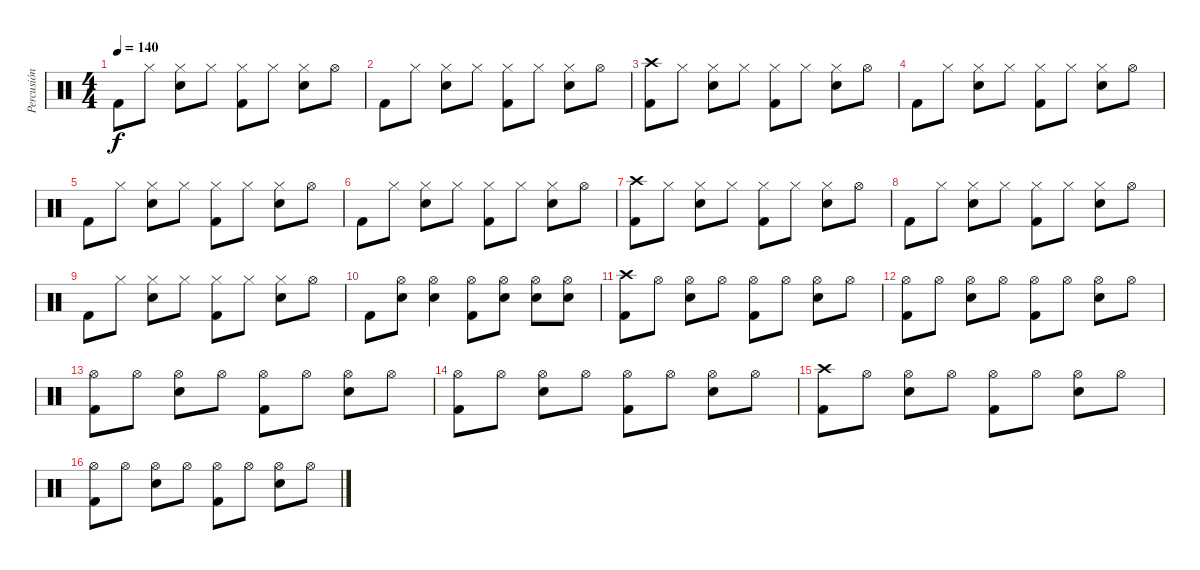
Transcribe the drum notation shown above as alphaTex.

\track ("Percusión" "Percusión") {instrument percussion}
\staff {score}
\articulation defaults
\ts (4 4)
\tempo 140
\clef neutral
\ks c "Kick (hit) 2".8{dy f} "Hi-Hat (closed)".8
("Hi-Hat (closed)" "Electric Snare (hit)").8 "Hi-Hat (closed)".8 ("Hi-Hat (closed)" "Kick (hit) 2").8 "Hi-Hat (closed)".8 ("Hi-Hat (closed)" "Electric Snare (hit)").8 "Hi-Hat (open)".8 |
"Kick (hit) 2".8 "Hi-Hat (closed)".8 ("Hi-Hat (closed)" "Electric Snare (hit)").8 "Hi-Hat (closed)".8 ("Hi-Hat (closed)" "Kick (hit) 2").8 "Hi-Hat (closed)".8 ("Hi-Hat (closed)" "Electric Snare (hit)").8 "Hi-Hat (open)".8 |
("Crash high (hit)" "Kick (hit) 2").8 "Hi-Hat (closed)".8 ("Hi-Hat (closed)" "Electric Snare (hit)").8 "Hi-Hat (closed)".8 ("Hi-Hat (closed)" "Kick (hit) 2").8 "Hi-Hat (closed)".8 ("Hi-Hat (closed)" "Electric Snare (hit)").8 "Hi-Hat (open)".8 |
"Kick (hit) 2".8 "Hi-Hat (closed)".8 ("Hi-Hat (closed)" "Electric Snare (hit)").8 "Hi-Hat (closed)".8 ("Hi-Hat (closed)" "Kick (hit) 2").8 "Hi-Hat (closed)".8 ("Hi-Hat (closed)" "Electric Snare (hit)").8 "Hi-Hat (open)".8 |
"Kick (hit) 2".8 "Hi-Hat (closed)".8 ("Hi-Hat (closed)" "Electric Snare (hit)").8 "Hi-Hat (closed)".8 ("Hi-Hat (closed)" "Kick (hit) 2").8 "Hi-Hat (closed)".8 ("Hi-Hat (closed)" "Electric Snare (hit)").8 "Hi-Hat (open)".8 |
"Kick (hit) 2".8 "Hi-Hat (closed)".8 ("Hi-Hat (closed)" "Electric Snare (hit)").8 "Hi-Hat (closed)".8 ("Hi-Hat (closed)" "Kick (hit) 2").8 "Hi-Hat (closed)".8 ("Hi-Hat (closed)" "Electric Snare (hit)").8 "Hi-Hat (open)".8 |
("Crash high (hit)" "Kick (hit) 2").8 "Hi-Hat (closed)".8 ("Hi-Hat (closed)" "Electric Snare (hit)").8 "Hi-Hat (closed)".8 ("Hi-Hat (closed)" "Kick (hit) 2").8 "Hi-Hat (closed)".8 ("Hi-Hat (closed)" "Electric Snare (hit)").8 "Hi-Hat (open)".8 |
"Kick (hit) 2".8 "Hi-Hat (closed)".8 ("Hi-Hat (closed)" "Electric Snare (hit)").8 "Hi-Hat (closed)".8 ("Hi-Hat (closed)" "Kick (hit) 2").8 "Hi-Hat (closed)".8 ("Hi-Hat (closed)" "Electric Snare (hit)").8 "Hi-Hat (open)".8 |
"Kick (hit) 2".8 "Hi-Hat (closed)".8 ("Hi-Hat (closed)" "Electric Snare (hit)").8 "Hi-Hat (closed)".8 ("Hi-Hat (closed)" "Kick (hit) 2").8 "Hi-Hat (closed)".8 ("Hi-Hat (closed)" "Electric Snare (hit)").8 "Hi-Hat (open)".8 |
"Kick (hit) 2".8 ("Hi-Hat (open)" "Electric Snare (hit)").8 ("Hi-Hat (open)" "Electric Snare (hit)").4 ("Hi-Hat (open)" "Kick (hit) 2").8 ("Hi-Hat (open)" "Electric Snare (hit)").8 ("Hi-Hat (open)" "Electric Snare (hit)").8 ("Hi-Hat (open)" "Electric Snare (hit)").8 |
("Crash high (hit)" "Kick (hit) 2").8 "Hi-Hat (open)".8 ("Hi-Hat (open)" "Electric Snare (hit)").8 "Hi-Hat (open)".8 ("Hi-Hat (open)" "Kick (hit) 2").8 "Hi-Hat (open)".8 ("Hi-Hat (open)" "Electric Snare (hit)").8 "Hi-Hat (open)".8 |
("Hi-Hat (open)" "Kick (hit) 2").8 "Hi-Hat (open)".8 ("Hi-Hat (open)" "Electric Snare (hit)").8 "Hi-Hat (open)".8 ("Hi-Hat (open)" "Kick (hit) 2").8 "Hi-Hat (open)".8 ("Hi-Hat (open)" "Electric Snare (hit)").8 "Hi-Hat (open)".8 |
("Hi-Hat (open)" "Kick (hit) 2").8 "Hi-Hat (open)".8 ("Hi-Hat (open)" "Electric Snare (hit)").8 "Hi-Hat (open)".8 ("Hi-Hat (open)" "Kick (hit) 2").8 "Hi-Hat (open)".8 ("Hi-Hat (open)" "Electric Snare (hit)").8 "Hi-Hat (open)".8 |
("Hi-Hat (open)" "Kick (hit) 2").8 "Hi-Hat (open)".8 ("Hi-Hat (open)" "Electric Snare (hit)").8 "Hi-Hat (open)".8 ("Hi-Hat (open)" "Kick (hit) 2").8 "Hi-Hat (open)".8 ("Hi-Hat (open)" "Electric Snare (hit)").8 "Hi-Hat (open)".8 |
("Crash high (hit)" "Kick (hit) 2").8 "Hi-Hat (open)".8 ("Hi-Hat (open)" "Electric Snare (hit)").8 "Hi-Hat (open)".8 ("Hi-Hat (open)" "Kick (hit) 2").8 "Hi-Hat (open)".8 ("Hi-Hat (open)" "Electric Snare (hit)").8 "Hi-Hat (open)".8 |
("Hi-Hat (open)" "Kick (hit) 2").8 "Hi-Hat (open)".8 ("Hi-Hat (open)" "Electric Snare (hit)").8 "Hi-Hat (open)".8 ("Hi-Hat (open)" "Kick (hit) 2").8 "Hi-Hat (open)".8 ("Hi-Hat (open)" "Electric Snare (hit)").8 "Hi-Hat (open)".8
